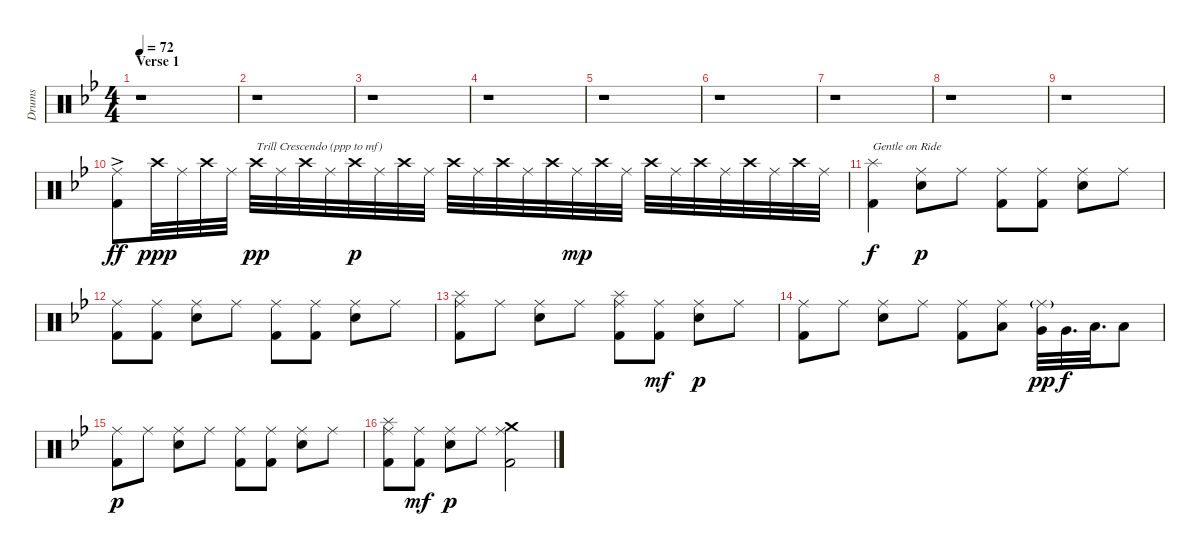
\track ("Drums" "Drums") {instrument percussion}
\staff {score}
\articulation defaults
\ts (4 4)
\section ("" "Verse 1")
\tempo 72
\clef neutral
\ks bb
r.1{dy mp volume 11} |
r.1 |
r.1 |
r.1 |
r.1 |
r.1 |
r.1 |
r.1 |
r.1 |
("Ride (middle)" "Kick (hit) 2"{ac}).8{dy ff} "Crash high (hit)".32{dy ppp} "Ride (middle)".32 "Crash high (hit)".32 "Ride (middle)".32 "Crash high (hit)".32{txt "Trill Crescendo (ppp to mf)" dy pp} "Ride (middle)".32 "Crash high (hit)".32 "Ride (middle)".32 "Crash high (hit)".32{dy p} "Ride (middle)".32 "Crash high (hit)".32 "Ride (middle)".32 "Crash high (hit)".32 "Ride (middle)".32 "Crash high (hit)".32 "Ride (middle)".32 "Crash high (hit)".32 "Ride (middle)".32{dy mp} "Crash high (hit)".32 "Ride (middle)".32 "Crash high (hit)".32 "Ride (middle)".32 "Crash high (hit)".32 "Ride (middle)".32 "Crash high (hit)".32 "Ride (middle)".32 "Crash high (hit)".32 "Ride (middle)".32 |
("Splash (hit)" "Kick (hit) 2").4{txt "Gentle on Ride" dy f} ("Ride (middle)" "Electric Snare (hit)").8{dy p} "Ride (middle)".8 ("Ride (middle)" "Kick (hit) 2").8 ("Ride (middle)" "Kick (hit) 2").8 ("Ride (middle)" "Electric Snare (hit)").8 "Ride (middle)".8 |
("Ride (middle)" "Kick (hit) 2").8 ("Ride (middle)" "Kick (hit) 2").8 ("Ride (middle)" "Electric Snare (hit)").8 "Ride (middle)".8 ("Ride (middle)" "Kick (hit) 2").8 ("Ride (middle)" "Kick (hit) 2").8 ("Ride (middle)" "Electric Snare (hit)").8 "Ride (middle)".8 |
("Splash (hit)" "Ride (middle)" "Kick (hit) 2").8 "Ride (middle)".8 ("Ride (middle)" "Electric Snare (hit)").8 "Ride (middle)".8 ("Splash (hit)" "Ride (middle)" "Kick (hit) 2").8 ("Ride (middle)" "Kick (hit) 2").8{dy mf} ("Ride (middle)" "Electric Snare (hit)").8{dy p} "Ride (middle)".8 |
("Ride (middle)" "Kick (hit) 2").8 "Ride (middle)".8 ("Ride (middle)" "Electric Snare (hit)").8 "Ride (middle)".8 ("Ride (middle)" "Kick (hit) 2").8 ("Ride (middle)" "Low Tom (hit)").8 ("Ride (middle)"{g} "Very Low Tom (hit)").32{dy pp} "Very Low Tom (hit)".32{d dy f} "Low Floor Tom (hit)".32{d} "Low Floor Tom (hit)".8 |
("Ride (middle)" "Kick (hit) 2").8{dy p} "Ride (middle)".8 ("Ride (middle)" "Electric Snare (hit)").8 "Ride (middle)".8 ("Ride (middle)" "Kick (hit) 2").8 ("Ride (middle)" "Kick (hit) 2").8 ("Ride (middle)" "Electric Snare (hit)").8 "Ride (middle)".8 |
("Splash (hit)" "Ride (middle)" "Kick (hit) 2").8 ("Ride (middle)" "Kick (hit) 2").8{dy mf} ("Ride (middle)" "Electric Snare (hit)").8{dy p} "Ride (middle)".8 ("Crash medium (hit)" "Ride (middle)" "Kick (hit) 2").2
